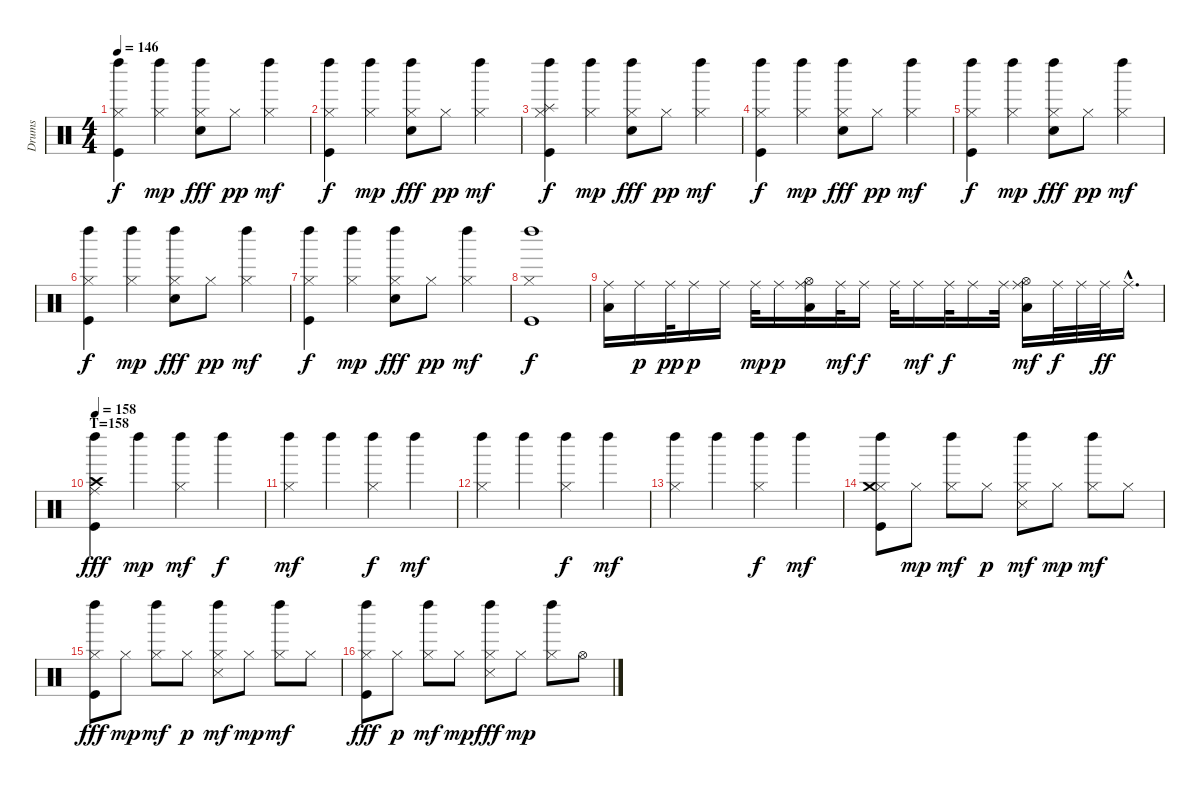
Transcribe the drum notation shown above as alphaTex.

\track ("Drums" "Drums") {instrument percussion}
\staff {score}
\articulation defaults
\ts (4 4)
\tempo 146
\clef neutral
\ks c
("Kick (hit)" "Hi-Hat (closed)" "Left Maraca (hit)").4{dy f} ("Hi-Hat (closed)" "Left Maraca (hit)").4{dy mp} ("Hi-Hat (closed)" "Left Maraca (hit)" "Electric Snare (hit)").8{dy fff} "Hi-Hat (closed)".8{dy pp} ("Left Maraca (hit)" "Hi-Hat (closed)").4{dy mf} |
("Kick (hit)" "Hi-Hat (closed)" "Left Maraca (hit)").4{dy f} ("Hi-Hat (closed)" "Left Maraca (hit)").4{dy mp} ("Hi-Hat (closed)" "Left Maraca (hit)" "Electric Snare (hit)").8{dy fff} "Hi-Hat (closed)".8{dy pp} ("Left Maraca (hit)" "Hi-Hat (closed)").4{dy mf} |
("Kick (hit)" "Hi-Hat (closed)" "Left Maraca (hit)" "Splash (hit)").4{dy f} ("Hi-Hat (closed)" "Left Maraca (hit)").4{dy mp} ("Hi-Hat (closed)" "Left Maraca (hit)" "Electric Snare (hit)").8{dy fff} "Hi-Hat (closed)".8{dy pp} ("Left Maraca (hit)" "Hi-Hat (closed)").4{dy mf} |
("Kick (hit)" "Hi-Hat (closed)" "Left Maraca (hit)").4{dy f} ("Hi-Hat (closed)" "Left Maraca (hit)").4{dy mp} ("Hi-Hat (closed)" "Left Maraca (hit)" "Electric Snare (hit)").8{dy fff} "Hi-Hat (closed)".8{dy pp} ("Left Maraca (hit)" "Hi-Hat (closed)").4{dy mf} |
("Kick (hit)" "Hi-Hat (closed)" "Left Maraca (hit)").4{dy f} ("Hi-Hat (closed)" "Left Maraca (hit)").4{dy mp} ("Hi-Hat (closed)" "Left Maraca (hit)" "Electric Snare (hit)").8{dy fff} "Hi-Hat (closed)".8{dy pp} ("Left Maraca (hit)" "Hi-Hat (closed)").4{dy mf} |
("Kick (hit)" "Hi-Hat (closed)" "Left Maraca (hit)").4{dy f} ("Hi-Hat (closed)" "Left Maraca (hit)").4{dy mp} ("Hi-Hat (closed)" "Left Maraca (hit)" "Electric Snare (hit)").8{dy fff} "Hi-Hat (closed)".8{dy pp} ("Left Maraca (hit)" "Hi-Hat (closed)").4{dy mf} |
("Kick (hit)" "Hi-Hat (closed)" "Left Maraca (hit)").4{dy f} ("Hi-Hat (closed)" "Left Maraca (hit)").4{dy mp} ("Hi-Hat (closed)" "Left Maraca (hit)" "Electric Snare (hit)").8{dy fff} "Hi-Hat (closed)".8{dy pp} ("Left Maraca (hit)" "Hi-Hat (closed)").4{dy mf} |
("Kick (hit)" "Hi-Hat (closed)" "Left Maraca (hit)").1{dy f} |
("Ride (middle)" "Low Tom (hit)").16 "Ride (middle)".16{dy p} "Ride (middle)".32{dy pp} "Ride (middle)".16{dy p} "Ride (middle)".16 "Ride (middle)".32{dy mp} "Ride (middle)".16{dy p} ("Ride (middle)" "Low Floor Tom (hit)" "Hi-Hat (open)").16 "Ride (middle)".32{dy mf} "Ride (middle)".16{dy f} "Ride (middle)".32 "Ride (middle)".16{dy mf} "Ride (middle)".32{dy f} "Ride (middle)".16 "Ride (middle)".32 ("Hi-Hat (open)" "Low Floor Tom (hit)" "Ride (middle)").16{dy mf} "Ride (middle)".32{dy f} "Ride (middle)".32 "Ride (middle)".32{dy ff} "Ride (middle)"{hac}.16{d} |
\section ("" "T=158")
\tempo 158
("Crash high (hit)" "Left Maraca (hit)" "Kick (hit)" "Ride (middle)").4{dy fff} "Left Maraca (hit)".4{dy mp} ("Hi-Hat (closed)" "Left Maraca (hit)").4{dy mf} "Left Maraca (hit)".4{dy f} |
("Hi-Hat (closed)" "Left Maraca (hit)").4{dy mf} "Left Maraca (hit)".4 ("Hi-Hat (closed)" "Left Maraca (hit)").4{dy f} "Left Maraca (hit)".4{dy mf} |
("Hi-Hat (closed)" "Left Maraca (hit)").4 "Left Maraca (hit)".4 ("Hi-Hat (closed)" "Left Maraca (hit)").4{dy f} "Left Maraca (hit)".4{dy mf} |
("Hi-Hat (closed)" "Left Maraca (hit)").4 "Left Maraca (hit)".4 ("Hi-Hat (closed)" "Left Maraca (hit)").4{dy f} "Left Maraca (hit)".4{dy mf} |
("Kick (hit)" "Hi-Hat (closed)" "Crash medium (hit)" "Left Maraca (hit)").8 "Hi-Hat (closed)".8{dy mp} ("Hi-Hat (closed)" "Left Maraca (hit)").8{dy mf} "Hi-Hat (closed)".8{dy p} ("Hi-Hat (closed)" "Snare (side stick) 3" "Left Maraca (hit)").8{dy mf} "Hi-Hat (closed)".8{dy mp} ("Hi-Hat (closed)" "Left Maraca (hit)").8{dy mf} "Hi-Hat (closed)".8 |
("Kick (hit)" "Hi-Hat (closed)" "Left Maraca (hit)").8{dy fff} "Hi-Hat (closed)".8{dy mp} ("Hi-Hat (closed)" "Left Maraca (hit)").8{dy mf} "Hi-Hat (closed)".8{dy p} ("Hi-Hat (closed)" "Snare (side stick) 3" "Left Maraca (hit)").8{dy mf} "Hi-Hat (closed)".8{dy mp} ("Hi-Hat (closed)" "Left Maraca (hit)").8{dy mf} "Hi-Hat (closed)".8 |
("Left Maraca (hit)" "Kick (hit)" "Hi-Hat (closed)").8{dy fff} "Hi-Hat (closed)".8{dy p} ("Left Maraca (hit)" "Hi-Hat (closed)").8{dy mf} "Hi-Hat (closed)".8{dy mp} ("Snare (side stick) 3" "Hi-Hat (closed)" "Left Maraca (hit)").8{dy fff} "Hi-Hat (closed)".8{dy mp} ("Hi-Hat (closed)" "Left Maraca (hit)").8 "Hi-Hat (open)".8
